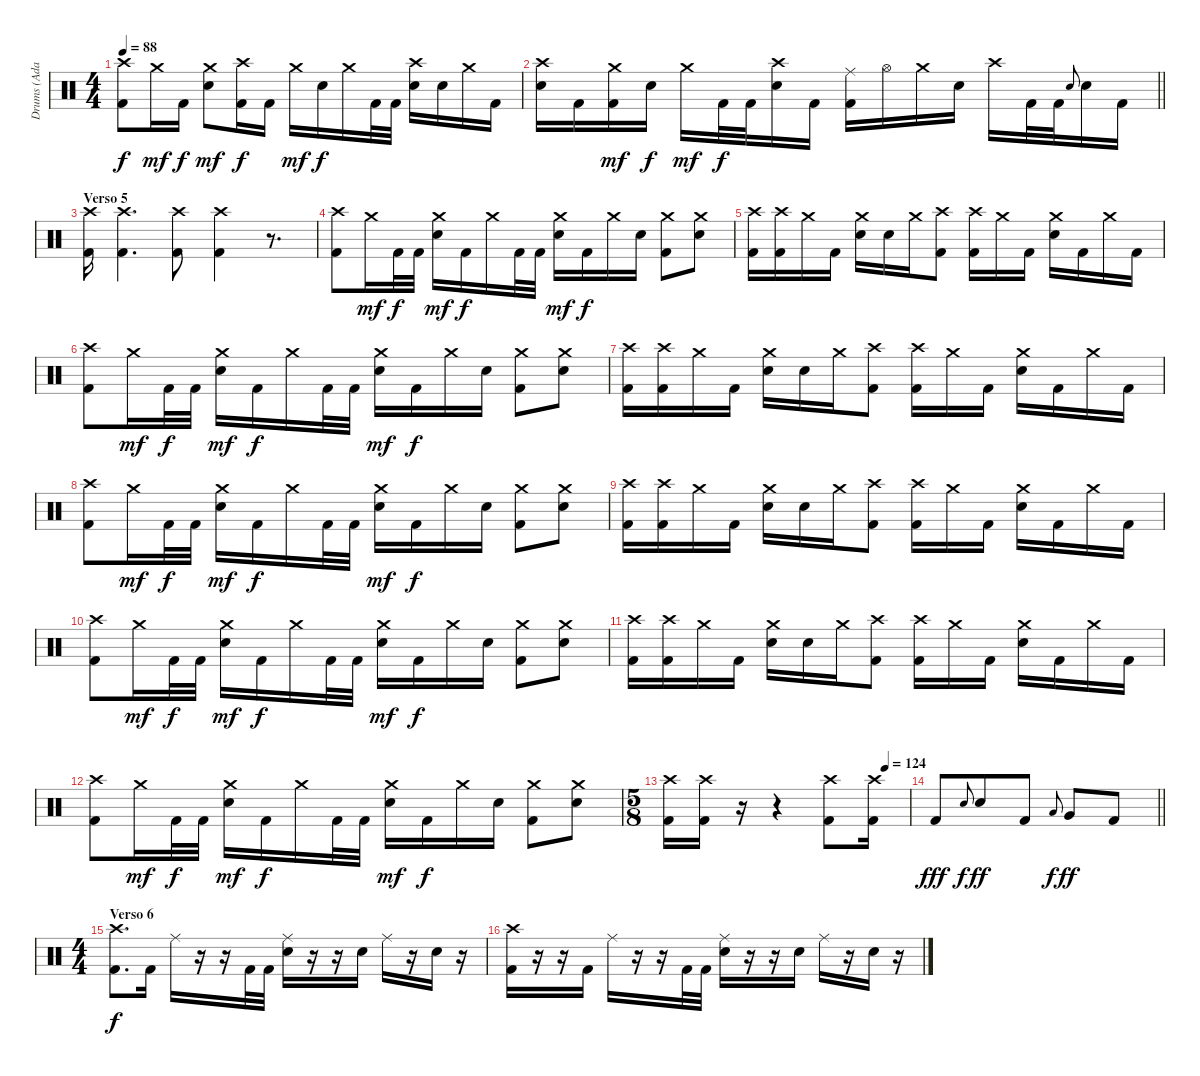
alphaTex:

\track ("Drums (Adam Morgan)" "Drums (Ada") {instrument percussion}
\staff {score}
\articulation defaults
\ts (4 4)
\tempo 88
\clef neutral
\ks c
("Crash high (hit)" "Kick (hit) 2").8{dy f} "Crash medium (hit)".16{dy mf} "Kick (hit) 2".16{dy f} ("Crash medium (hit)" "Snare (hit) 2").8{dy mf} ("Crash high (hit)" "Kick (hit) 2").16{dy f} "Kick (hit) 2".16 "Crash medium (hit)".16{dy mf} "Snare (hit) 2".16{dy f} "Crash medium (hit)".16 "Kick (hit) 2".32 "Kick (hit) 2".32 ("Crash high (hit)" "Snare (hit) 2").16 "Snare (hit) 2".16 "Crash medium (hit)".16 "Kick (hit) 2".16 |
\barLineRight lightlight
("Crash high (hit)" "Snare (hit) 2").16 "Kick (hit) 2".16 ("Crash medium (hit)" "Kick (hit) 2").16{dy mf} "Snare (hit) 2".16{dy f} "Crash medium (hit)".16{dy mf} "Kick (hit) 2".32{dy f} "Kick (hit) 2".32 ("Crash high (hit)" "Snare (hit) 2").16 "Kick (hit) 2".16 ("Ride (middle)" "Kick (hit) 2").16 "Hi-Hat (open)".16 "Crash medium (hit)".16 "Snare (hit) 2".16 "Crash high (hit)".16 "Kick (hit) 2".32 "Kick (hit) 2".32 "Snare (hit) 2".8{gr onbeat} "Snare (hit) 2".16 "Kick (hit) 2".16 |
\section ("" "Verso 5")
("Crash high (hit)" "Kick (hit) 2").16 ("Crash high (hit)" "Kick (hit) 2").4{d} ("Crash high (hit)" "Kick (hit) 2").8 ("Crash high (hit)" "Kick (hit) 2").4 r.8{d} |
("Crash high (hit)" "Kick (hit) 2").8 "Crash medium (hit)".16{dy mf} "Kick (hit) 2".32{dy f} "Kick (hit) 2".32 ("Crash medium (hit)" "Snare (hit) 2").16{dy mf} "Kick (hit) 2".16{dy f} "Crash medium (hit)".16 "Kick (hit) 2".32 "Kick (hit) 2".32 ("Crash medium (hit)" "Snare (hit) 2").16{dy mf} "Kick (hit) 2".16{dy f} "Crash medium (hit)".16 "Snare (hit) 2".16 ("Crash medium (hit)" "Kick (hit) 2").8 ("Crash medium (hit)" "Snare (hit) 2").8 |
("Crash high (hit)" "Kick (hit) 2").16 ("Crash high (hit)" "Kick (hit) 2").16 "Crash medium (hit)".16 "Kick (hit) 2".16 ("Crash medium (hit)" "Snare (hit) 2").16 "Snare (hit) 2".16 "Crash medium (hit)".16 ("Crash high (hit)" "Kick (hit) 2").8 ("Crash high (hit)" "Kick (hit) 2").16 "Crash medium (hit)".16 "Kick (hit) 2".16 ("Crash medium (hit)" "Snare (hit) 2").16 "Kick (hit) 2".16 "Crash medium (hit)".16 "Kick (hit) 2".16 |
("Crash high (hit)" "Kick (hit) 2").8 "Crash medium (hit)".16{dy mf} "Kick (hit) 2".32{dy f} "Kick (hit) 2".32 ("Crash medium (hit)" "Snare (hit) 2").16{dy mf} "Kick (hit) 2".16{dy f} "Crash medium (hit)".16 "Kick (hit) 2".32 "Kick (hit) 2".32 ("Crash medium (hit)" "Snare (hit) 2").16{dy mf} "Kick (hit) 2".16{dy f} "Crash medium (hit)".16 "Snare (hit) 2".16 ("Crash medium (hit)" "Kick (hit) 2").8 ("Crash medium (hit)" "Snare (hit) 2").8 |
("Crash high (hit)" "Kick (hit) 2").16 ("Crash high (hit)" "Kick (hit) 2").16 "Crash medium (hit)".16 "Kick (hit) 2".16 ("Crash medium (hit)" "Snare (hit) 2").16 "Snare (hit) 2".16 "Crash medium (hit)".16 ("Crash high (hit)" "Kick (hit) 2").8 ("Crash high (hit)" "Kick (hit) 2").16 "Crash medium (hit)".16 "Kick (hit) 2".16 ("Crash medium (hit)" "Snare (hit) 2").16 "Kick (hit) 2".16 "Crash medium (hit)".16 "Kick (hit) 2".16 |
("Crash high (hit)" "Kick (hit) 2").8 "Crash medium (hit)".16{dy mf} "Kick (hit) 2".32{dy f} "Kick (hit) 2".32 ("Crash medium (hit)" "Snare (hit) 2").16{dy mf} "Kick (hit) 2".16{dy f} "Crash medium (hit)".16 "Kick (hit) 2".32 "Kick (hit) 2".32 ("Crash medium (hit)" "Snare (hit) 2").16{dy mf} "Kick (hit) 2".16{dy f} "Crash medium (hit)".16 "Snare (hit) 2".16 ("Crash medium (hit)" "Kick (hit) 2").8 ("Crash medium (hit)" "Snare (hit) 2").8 |
("Crash high (hit)" "Kick (hit) 2").16 ("Crash high (hit)" "Kick (hit) 2").16 "Crash medium (hit)".16 "Kick (hit) 2".16 ("Crash medium (hit)" "Snare (hit) 2").16 "Snare (hit) 2".16 "Crash medium (hit)".16 ("Crash high (hit)" "Kick (hit) 2").8 ("Crash high (hit)" "Kick (hit) 2").16 "Crash medium (hit)".16 "Kick (hit) 2".16 ("Crash medium (hit)" "Snare (hit) 2").16 "Kick (hit) 2".16 "Crash medium (hit)".16 "Kick (hit) 2".16 |
("Crash high (hit)" "Kick (hit) 2").8 "Crash medium (hit)".16{dy mf} "Kick (hit) 2".32{dy f} "Kick (hit) 2".32 ("Crash medium (hit)" "Snare (hit) 2").16{dy mf} "Kick (hit) 2".16{dy f} "Crash medium (hit)".16 "Kick (hit) 2".32 "Kick (hit) 2".32 ("Crash medium (hit)" "Snare (hit) 2").16{dy mf} "Kick (hit) 2".16{dy f} "Crash medium (hit)".16 "Snare (hit) 2".16 ("Crash medium (hit)" "Kick (hit) 2").8 ("Crash medium (hit)" "Snare (hit) 2").8 |
("Crash high (hit)" "Kick (hit) 2").16 ("Crash high (hit)" "Kick (hit) 2").16 "Crash medium (hit)".16 "Kick (hit) 2".16 ("Crash medium (hit)" "Snare (hit) 2").16 "Snare (hit) 2".16 "Crash medium (hit)".16 ("Crash high (hit)" "Kick (hit) 2").8 ("Crash high (hit)" "Kick (hit) 2").16 "Crash medium (hit)".16 "Kick (hit) 2".16 ("Crash medium (hit)" "Snare (hit) 2").16 "Kick (hit) 2".16 "Crash medium (hit)".16 "Kick (hit) 2".16 |
("Crash high (hit)" "Kick (hit) 2").8 "Crash medium (hit)".16{dy mf} "Kick (hit) 2".32{dy f} "Kick (hit) 2".32 ("Crash medium (hit)" "Snare (hit) 2").16{dy mf} "Kick (hit) 2".16{dy f} "Crash medium (hit)".16 "Kick (hit) 2".32 "Kick (hit) 2".32 ("Crash medium (hit)" "Snare (hit) 2").16{dy mf} "Kick (hit) 2".16{dy f} "Crash medium (hit)".16 "Snare (hit) 2".16 ("Crash medium (hit)" "Kick (hit) 2").8 ("Crash medium (hit)" "Snare (hit) 2").8 |
\ts (5 8)
\tempo (124 0.9)
("Crash high (hit)" "Kick (hit) 2").16 ("Crash high (hit)" "Kick (hit) 2").16 r.16 r.4 ("Crash high (hit)" "Kick (hit) 2").8 ("Crash high (hit)" "Kick (hit) 2").16 |
\barLineRight lightlight "Kick (hit) 2".8{dy fff} "Snare (hit) 2".8{gr onbeat dy f} "Snare (hit) 2".8{dy ff} "Kick (hit) 2".8 "Low Tom (hit)".8{gr onbeat dy f} "Very Low Tom (hit)".8{dy ff} "Kick (hit) 2".8
|
\ts (4 4)
\section ("" "Verso 6")
("Crash high (hit)" "Kick (hit) 2").8{d dy f} "Kick (hit) 2".16 "Ride (middle)".16 r.16 r.16 "Kick (hit) 2".32 "Kick (hit) 2".32 ("Ride (middle)" "Snare (hit) 2").16 r.16 r.16 "Snare (hit) 2".16 "Ride (middle)".16 r.16 "Snare (hit) 2".16 r.16 |
("Crash high (hit)" "Kick (hit) 2").16 r.16 r.16 "Kick (hit) 2".16 "Ride (middle)".16 r.16 r.16 "Kick (hit) 2".32 "Kick (hit) 2".32 ("Ride (middle)" "Snare (hit) 2").16 r.16 r.16 "Snare (hit) 2".16 "Ride (middle)".16 r.16 "Snare (hit) 2".16 r.16
